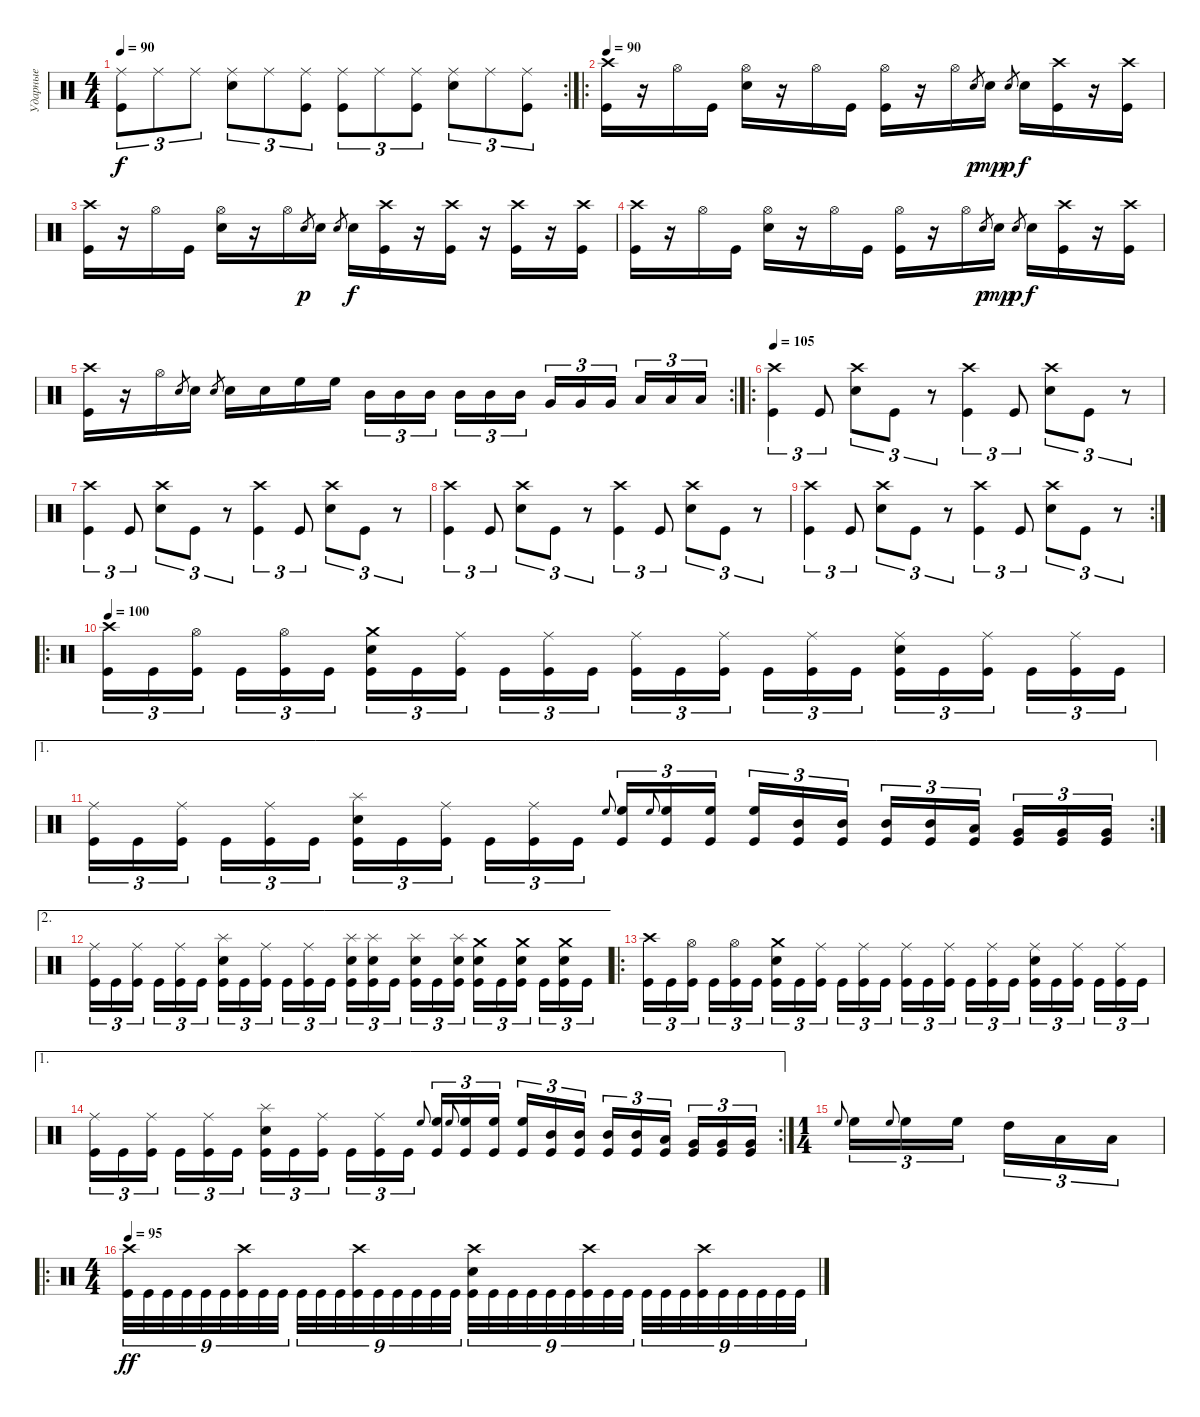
\track ("Ударные" "Ударные") {instrument percussion}
\staff {score}
\articulation defaults
\rc 2
\ts (4 4)
\tempo 90
\clef neutral
\ks c
("Ride (middle)" "Kick (hit)").8{tu (3 2) dy f} "Ride (middle)".8{tu (3 2)} "Ride (middle)".8{tu (3 2)} ("Ride (middle)" "Snare (hit) 2").8{tu (3 2)} "Ride (middle)".8{tu (3 2)} ("Ride (middle)" "Kick (hit)").8{tu (3 2)} ("Ride (middle)" "Kick (hit)").8{tu (3 2)} "Ride (middle)".8{tu (3 2)} ("Ride (middle)" "Kick (hit)").8{tu (3 2)} ("Ride (middle)" "Snare (hit) 2").8{tu (3 2)} "Ride (middle)".8{tu (3 2)} ("Ride (middle)" "Kick (hit)").8{tu (3 2)} |
\ro
\tempo 90
("Crash high (hit)" "Kick (hit)").16 r.16 "Hi-Hat (open)".16 "Kick (hit)".16 ("Hi-Hat (open)" "Snare (hit) 2").16 r.16 "Hi-Hat (open)".16 "Kick (hit)".16 ("Hi-Hat (open)" "Kick (hit)").16 r.16 "Hi-Hat (open)".16 "Snare (hit) 2".8{gr dy p} "Snare (hit) 2".16{dy mp} "Snare (hit) 2".8{gr dy p} "Snare (hit) 2".16{dy f} ("Crash high (hit)" "Kick (hit)").16 r.16 ("Kick (hit)" "Crash high (hit)").16 |
("Crash high (hit)" "Kick (hit)").16 r.16 "Hi-Hat (open)".16 "Kick (hit)".16 ("Hi-Hat (open)" "Snare (hit) 2").16 r.16 "Hi-Hat (open)".16 "Snare (hit) 2".8{gr dy p} "Snare (hit) 2".16 "Snare (hit) 2".8{gr} "Snare (hit) 2".16{dy f} ("Kick (hit)" "Crash high (hit)").16 r.16 ("Kick (hit)" "Crash high (hit)").16 r.16 ("Kick (hit)" "Crash high (hit)").16 r.16 ("Kick (hit)" "Crash high (hit)").16 |
("Crash high (hit)" "Kick (hit)").16 r.16 "Hi-Hat (open)".16 "Kick (hit)".16 ("Hi-Hat (open)" "Snare (hit) 2").16 r.16 "Hi-Hat (open)".16 "Kick (hit)".16 ("Hi-Hat (open)" "Kick (hit)").16 r.16 "Hi-Hat (open)".16 "Snare (hit) 2".8{gr dy p} "Snare (hit) 2".16{dy mp} "Snare (hit) 2".8{gr dy p} "Snare (hit) 2".16{dy f} ("Crash high (hit)" "Kick (hit)").16 r.16 ("Kick (hit)" "Crash high (hit)").16 |
\rc 2
("Crash high (hit)" "Kick (hit)").16 r.16 "Hi-Hat (open)".16 "Snare (hit) 2".8{gr} "Snare (hit) 2".16 "Snare (hit) 2".8{gr} "Snare (hit) 2".16 "Snare (hit) 2".16 "High Floor Tom (hit)".16 "High Floor Tom (hit)".16 "Mid Tom (hit)".16{tu (3 2)} "Mid Tom (hit)".16{tu (3 2)} "Mid Tom (hit)".16{tu (3 2) beam splitsecondary} "Mid Tom (hit)".16{tu (3 2)} "Mid Tom (hit)".16{tu (3 2)} "Mid Tom (hit)".16{tu (3 2)} "Very Low Tom (hit)".16{tu (3 2)} "Very Low Tom (hit)".16{tu (3 2)} "Very Low Tom (hit)".16{tu (3 2) beam splitsecondary} "Low Floor Tom (hit)".16{tu (3 2)} "Low Floor Tom (hit)".16{tu (3 2)} "Low Floor Tom (hit)".16{tu (3 2)} |
\ro
\tempo 105
("Crash high (hit)" "Kick (hit)").4{tu (3 2)} "Kick (hit)".8{tu (3 2)} ("Crash high (hit)" "Snare (hit) 2").8{tu (3 2)} "Kick (hit)".8{tu (3 2)} r.8{tu (3 2)} ("Crash high (hit)" "Kick (hit)").4{tu (3 2)} "Kick (hit)".8{tu (3 2)} ("Crash high (hit)" "Snare (hit) 2").8{tu (3 2)} "Kick (hit)".8{tu (3 2)} r.8{tu (3 2)} |
("Crash high (hit)" "Kick (hit)").4{tu (3 2)} "Kick (hit)".8{tu (3 2)} ("Crash high (hit)" "Snare (hit) 2").8{tu (3 2)} "Kick (hit)".8{tu (3 2)} r.8{tu (3 2)} ("Crash high (hit)" "Kick (hit)").4{tu (3 2)} "Kick (hit)".8{tu (3 2)} ("Crash high (hit)" "Snare (hit) 2").8{tu (3 2)} "Kick (hit)".8{tu (3 2)} r.8{tu (3 2)} |
("Crash high (hit)" "Kick (hit)").4{tu (3 2)} "Kick (hit)".8{tu (3 2)} ("Crash high (hit)" "Snare (hit) 2").8{tu (3 2)} "Kick (hit)".8{tu (3 2)} r.8{tu (3 2)} ("Crash high (hit)" "Kick (hit)").4{tu (3 2)} "Kick (hit)".8{tu (3 2)} ("Crash high (hit)" "Snare (hit) 2").8{tu (3 2)} "Kick (hit)".8{tu (3 2)} r.8{tu (3 2)} |
\rc 2
("Crash high (hit)" "Kick (hit)").4{tu (3 2)} "Kick (hit)".8{tu (3 2)} ("Crash high (hit)" "Snare (hit) 2").8{tu (3 2)} "Kick (hit)".8{tu (3 2)} r.8{tu (3 2)} ("Crash high (hit)" "Kick (hit)").4{tu (3 2)} "Kick (hit)".8{tu (3 2)} ("Crash high (hit)" "Snare (hit) 2").8{tu (3 2)} "Kick (hit)".8{tu (3 2)} r.8{tu (3 2)} |
\ro
\tempo 100
("Crash high (hit)" "Kick (hit)").16{tu (3 2)} "Kick (hit)".16{tu (3 2)} ("Hi-Hat (open)" "Kick (hit)").16{tu (3 2) beam splitsecondary} "Kick (hit)".16{tu (3 2)} ("Hi-Hat (open)" "Kick (hit)").16{tu (3 2)} "Kick (hit)".16{tu (3 2)} ("Crash medium (hit)" "Snare (hit) 2" "Kick (hit)").16{tu (3 2)} "Kick (hit)".16{tu (3 2)} ("Ride (middle)" "Kick (hit)").16{tu (3 2) beam splitsecondary} "Kick (hit)".16{tu (3 2)} ("Ride (middle)" "Kick (hit)").16{tu (3 2)} "Kick (hit)".16{tu (3 2)} ("Ride (middle)" "Kick (hit)").16{tu (3 2)} "Kick (hit)".16{tu (3 2)} ("Ride (middle)" "Kick (hit)").16{tu (3 2) beam splitsecondary} "Kick (hit)".16{tu (3 2)} ("Ride (middle)" "Kick (hit)").16{tu (3 2)} "Kick (hit)".16{tu (3 2)} ("Ride (middle)" "Snare (hit) 2" "Kick (hit)").16{tu (3 2)} "Kick (hit)".16{tu (3 2)} ("Ride (middle)" "Kick (hit)").16{tu (3 2) beam splitsecondary} "Kick (hit)".16{tu (3 2)} ("Ride (middle)" "Kick (hit)").16{tu (3 2)} "Kick (hit)".16{tu (3 2)} |
\ae 1
\rc 2
("Ride (middle)" "Kick (hit)").16{tu (3 2)} "Kick (hit)".16{tu (3 2)} ("Ride (middle)" "Kick (hit)").16{tu (3 2) beam splitsecondary} "Kick (hit)".16{tu (3 2)} ("Ride (middle)" "Kick (hit)").16{tu (3 2)} "Kick (hit)".16{tu (3 2)} ("Splash (hit)" "Snare (hit) 2" "Kick (hit)").16{tu (3 2)} "Kick (hit)".16{tu (3 2)} ("Ride (middle)" "Kick (hit)").16{tu (3 2) beam splitsecondary} "Kick (hit)".16{tu (3 2)} ("Ride (middle)" "Kick (hit)").16{tu (3 2)} "Kick (hit)".16{tu (3 2)} "High Floor Tom (hit)".8{gr onbeat} ("High Floor Tom (hit)" "Kick (hit)").16{tu (3 2)} "High Floor Tom (hit)".8{gr onbeat} ("High Floor Tom (hit)" "Kick (hit)").16{tu (3 2)} ("High Floor Tom (hit)" "Kick (hit)").16{tu (3 2) beam splitsecondary} ("High Floor Tom (hit)" "Kick (hit)").16{tu (3 2)} ("Mid Tom (hit)" "Kick (hit)").16{tu (3 2)} ("Mid Tom (hit)" "Kick (hit)").16{tu (3 2)} ("Mid Tom (hit)" "Kick (hit)").16{tu (3 2)} ("Mid Tom (hit)" "Kick (hit)").16{tu (3 2)} ("Low Tom (hit)" "Kick (hit)").16{tu (3 2) beam splitsecondary} ("Very Low Tom (hit)" "Kick (hit)").16{tu (3 2)} ("Very Low Tom (hit)" "Kick (hit)").16{tu (3 2)} ("Very Low Tom (hit)" "Kick (hit)").16{tu (3 2)} |
\ae 2
("Ride (middle)" "Kick (hit)").16{tu (3 2)} "Kick (hit)".16{tu (3 2)} ("Ride (middle)" "Kick (hit)").16{tu (3 2) beam splitsecondary} "Kick (hit)".16{tu (3 2)} ("Ride (middle)" "Kick (hit)").16{tu (3 2)} "Kick (hit)".16{tu (3 2)} ("Splash (hit)" "Snare (hit) 2" "Kick (hit)").16{tu (3 2)} "Kick (hit)".16{tu (3 2)} ("Ride (middle)" "Kick (hit)").16{tu (3 2) beam splitsecondary} "Kick (hit)".16{tu (3 2)} ("Ride (middle)" "Kick (hit)").16{tu (3 2)} "Kick (hit)".16{tu (3 2)} ("Splash (hit)" "Snare (hit) 2" "Kick (hit)").16{tu (3 2)} ("Splash (hit)" "Snare (hit) 2" "Kick (hit)").16{tu (3 2)} "Kick (hit)".16{tu (3 2) beam splitsecondary} ("Splash (hit)" "Snare (hit) 2" "Kick (hit)").16{tu (3 2)} "Kick (hit)".16{tu (3 2)} ("Splash (hit)" "Snare (hit) 2" "Kick (hit)").16{tu (3 2)} ("Crash medium (hit)" "Snare (hit) 2" "Kick (hit)").16{tu (3 2)} "Kick (hit)".16{tu (3 2)} ("Crash medium (hit)" "Snare (hit) 2" "Kick (hit)").16{tu (3 2) beam splitsecondary} "Kick (hit)".16{tu (3 2)} ("Crash medium (hit)" "Snare (hit) 2" "Kick (hit)").16{tu (3 2)} "Kick (hit)".16{tu (3 2)} |
\ro
("Crash high (hit)" "Kick (hit)").16{tu (3 2)} "Kick (hit)".16{tu (3 2)} ("Hi-Hat (open)" "Kick (hit)").16{tu (3 2) beam splitsecondary} "Kick (hit)".16{tu (3 2)} ("Hi-Hat (open)" "Kick (hit)").16{tu (3 2)} "Kick (hit)".16{tu (3 2)} ("Crash medium (hit)" "Snare (hit) 2" "Kick (hit)").16{tu (3 2)} "Kick (hit)".16{tu (3 2)} ("Ride (middle)" "Kick (hit)").16{tu (3 2) beam splitsecondary} "Kick (hit)".16{tu (3 2)} ("Ride (middle)" "Kick (hit)").16{tu (3 2)} "Kick (hit)".16{tu (3 2)} ("Ride (middle)" "Kick (hit)").16{tu (3 2)} "Kick (hit)".16{tu (3 2)} ("Ride (middle)" "Kick (hit)").16{tu (3 2) beam splitsecondary} "Kick (hit)".16{tu (3 2)} ("Ride (middle)" "Kick (hit)").16{tu (3 2)} "Kick (hit)".16{tu (3 2)} ("Ride (middle)" "Snare (hit) 2" "Kick (hit)").16{tu (3 2)} "Kick (hit)".16{tu (3 2)} ("Ride (middle)" "Kick (hit)").16{tu (3 2) beam splitsecondary} "Kick (hit)".16{tu (3 2)} ("Ride (middle)" "Kick (hit)").16{tu (3 2)} "Kick (hit)".16{tu (3 2)} |
\ae 1
\rc 2
("Ride (middle)" "Kick (hit)").16{tu (3 2)} "Kick (hit)".16{tu (3 2)} ("Ride (middle)" "Kick (hit)").16{tu (3 2) beam splitsecondary} "Kick (hit)".16{tu (3 2)} ("Ride (middle)" "Kick (hit)").16{tu (3 2)} "Kick (hit)".16{tu (3 2)} ("Splash (hit)" "Snare (hit) 2" "Kick (hit)").16{tu (3 2)} "Kick (hit)".16{tu (3 2)} ("Ride (middle)" "Kick (hit)").16{tu (3 2) beam splitsecondary} "Kick (hit)".16{tu (3 2)} ("Ride (middle)" "Kick (hit)").16{tu (3 2)} "Kick (hit)".16{tu (3 2)} "High Floor Tom (hit)".8{gr onbeat} ("High Floor Tom (hit)" "Kick (hit)").16{tu (3 2)} "High Floor Tom (hit)".8{gr onbeat} ("High Floor Tom (hit)" "Kick (hit)").16{tu (3 2)} ("High Floor Tom (hit)" "Kick (hit)").16{tu (3 2) beam splitsecondary} ("High Floor Tom (hit)" "Kick (hit)").16{tu (3 2)} ("Mid Tom (hit)" "Kick (hit)").16{tu (3 2)} ("Mid Tom (hit)" "Kick (hit)").16{tu (3 2)} ("Mid Tom (hit)" "Kick (hit)").16{tu (3 2)} ("Mid Tom (hit)" "Kick (hit)").16{tu (3 2)} ("Low Tom (hit)" "Kick (hit)").16{tu (3 2) beam splitsecondary} ("Very Low Tom (hit)" "Kick (hit)").16{tu (3 2)} ("Very Low Tom (hit)" "Kick (hit)").16{tu (3 2)} ("Very Low Tom (hit)" "Kick (hit)").16{tu (3 2)} |
\ts (1 4)
"High Floor Tom (hit)".8{gr onbeat} "High Floor Tom (hit)".16{tu (3 2)} "High Floor Tom (hit)".8{gr onbeat} "High Floor Tom (hit)".16{tu (3 2)} "High Floor Tom (hit)".16{tu (3 2) beam splitsecondary} "High Tom (hit)".16{tu (3 2)} "Low Tom (hit)".16{tu (3 2)} "Low Tom (hit)".16{tu (3 2)} |
\ro
\ts (4 4)
\tempo 95
("Crash high (hit)" "Kick (hit)").32{tu (9 8) dy ff} "Kick (hit)".32{tu (9 8)} "Kick (hit)".32{tu (9 8)} "Kick (hit)".32{tu (9 8)} "Kick (hit)".32{tu (9 8)} "Kick (hit)".32{tu (9 8)} ("Crash high (hit)" "Kick (hit)").32{tu (9 8)} "Kick (hit)".32{tu (9 8)} "Kick (hit)".32{tu (9 8)} "Kick (hit)".32{tu (9 8)} "Kick (hit)".32{tu (9 8)} "Kick (hit)".32{tu (9 8)} ("Crash high (hit)" "Kick (hit)").32{tu (9 8)} "Kick (hit)".32{tu (9 8)} "Kick (hit)".32{tu (9 8)} "Kick (hit)".32{tu (9 8)} "Kick (hit)".32{tu (9 8)} "Kick (hit)".32{tu (9 8)} ("Snare (hit) 2" "Crash high (hit)" "Kick (hit)").32{tu (9 8)} "Kick (hit)".32{tu (9 8)} "Kick (hit)".32{tu (9 8)} "Kick (hit)".32{tu (9 8)} "Kick (hit)".32{tu (9 8)} "Kick (hit)".32{tu (9 8)} ("Crash high (hit)" "Kick (hit)").32{tu (9 8)} "Kick (hit)".32{tu (9 8)} "Kick (hit)".32{tu (9 8)} "Kick (hit)".32{tu (9 8)} "Kick (hit)".32{tu (9 8)} "Kick (hit)".32{tu (9 8)} ("Crash high (hit)" "Kick (hit)").32{tu (9 8)} "Kick (hit)".32{tu (9 8)} "Kick (hit)".32{tu (9 8)} "Kick (hit)".32{tu (9 8)} "Kick (hit)".32{tu (9 8)} "Kick (hit)".32{tu (9 8)}
